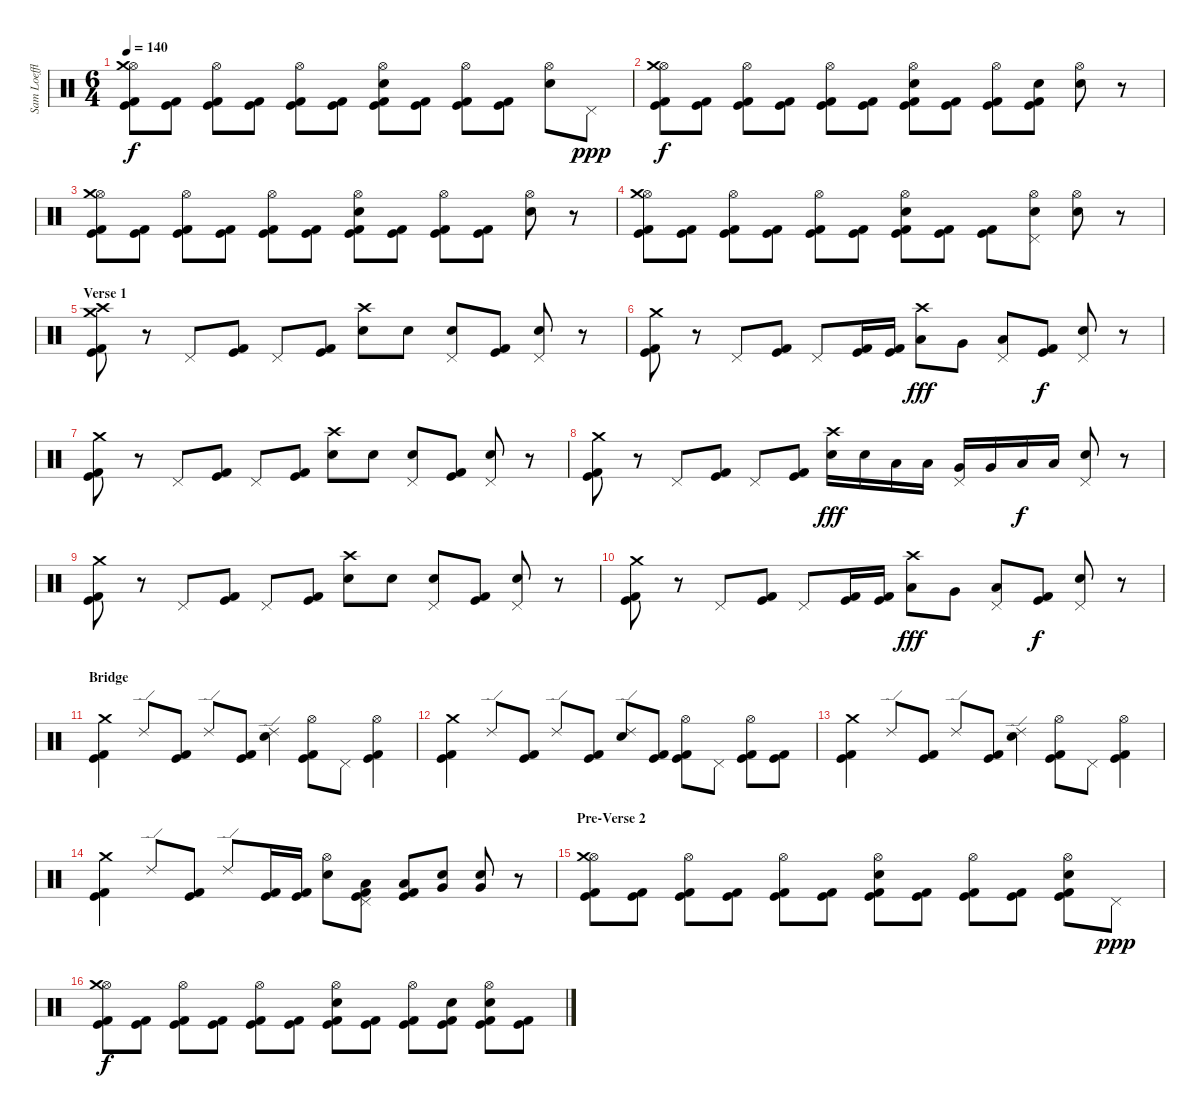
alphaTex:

\track ("Sam Loeffler - Drums" "Sam Loeffl") {instrument percussion}
\staff {score}
\articulation defaults
\ts (6 4)
\tempo 140
\clef neutral
\ks c
("Hi-Hat (open)" "Crash medium (hit)" "Kick (hit)" "Kick (hit) 2").8{dy f} ("Kick (hit)" "Kick (hit) 2").8 ("Hi-Hat (open)" "Kick (hit)" "Kick (hit) 2").8 ("Kick (hit)" "Kick (hit) 2").8 ("Hi-Hat (open)" "Kick (hit)" "Kick (hit) 2").8 ("Kick (hit)" "Kick (hit) 2").8 ("Hi-Hat (open)" "Electric Snare (hit)" "Kick (hit)" "Kick (hit) 2").8 ("Kick (hit)" "Kick (hit) 2").8 ("Hi-Hat (open)" "Kick (hit)" "Kick (hit) 2").8 ("Kick (hit)" "Kick (hit) 2").8 ("Hi-Hat (open)" "Electric Snare (hit)").8 "Pedal Hi-Hat (hit)".8{dy ppp} |
("Hi-Hat (open)" "Crash medium (hit)" "Kick (hit)" "Kick (hit) 2").8{dy f} ("Kick (hit)" "Kick (hit) 2").8 ("Hi-Hat (open)" "Kick (hit)" "Kick (hit) 2").8 ("Kick (hit)" "Kick (hit) 2").8 ("Hi-Hat (open)" "Kick (hit)" "Kick (hit) 2").8 ("Kick (hit)" "Kick (hit) 2").8 ("Hi-Hat (open)" "Electric Snare (hit)" "Kick (hit)" "Kick (hit) 2").8 ("Kick (hit)" "Kick (hit) 2").8 ("Hi-Hat (open)" "Kick (hit)" "Kick (hit) 2").8 ("Electric Snare (hit)" "Kick (hit)" "Kick (hit) 2").8 ("Hi-Hat (open)" "Electric Snare (hit)").8 r.8 |
("Hi-Hat (open)" "Crash medium (hit)" "Kick (hit)" "Kick (hit) 2").8 ("Kick (hit)" "Kick (hit) 2").8 ("Hi-Hat (open)" "Kick (hit)" "Kick (hit) 2").8 ("Kick (hit)" "Kick (hit) 2").8 ("Hi-Hat (open)" "Kick (hit)" "Kick (hit) 2").8 ("Kick (hit)" "Kick (hit) 2").8 ("Hi-Hat (open)" "Electric Snare (hit)" "Kick (hit)" "Kick (hit) 2").8 ("Kick (hit)" "Kick (hit) 2").8 ("Hi-Hat (open)" "Kick (hit)" "Kick (hit) 2").8 ("Kick (hit)" "Kick (hit) 2").8 ("Hi-Hat (open)" "Electric Snare (hit)").8 r.8 |
("Hi-Hat (open)" "Crash medium (hit)" "Kick (hit)" "Kick (hit) 2").8 ("Kick (hit)" "Kick (hit) 2").8 ("Hi-Hat (open)" "Kick (hit)" "Kick (hit) 2").8 ("Kick (hit)" "Kick (hit) 2").8 ("Hi-Hat (open)" "Kick (hit)" "Kick (hit) 2").8 ("Kick (hit)" "Kick (hit) 2").8 ("Hi-Hat (open)" "Electric Snare (hit)" "Kick (hit)" "Kick (hit) 2").8 ("Kick (hit)" "Kick (hit) 2").8 ("Kick (hit)" "Kick (hit) 2").8 ("Hi-Hat (open)" "Pedal Hi-Hat (hit)" "Electric Snare (hit)").8 ("Hi-Hat (open)" "Electric Snare (hit)").8 r.8 |
\section ("" "Verse 1")
("Crash high (hit)" "Crash medium (hit)" "Kick (hit)" "Kick (hit) 2").8 r.8 "Pedal Hi-Hat (hit)".8 ("Kick (hit)" "Kick (hit) 2").8 "Pedal Hi-Hat (hit)".8 ("Kick (hit)" "Kick (hit) 2").8 ("Crash high (hit)" "Electric Snare (hit)").8 "Electric Snare (hit)".8 ("Pedal Hi-Hat (hit)" "Electric Snare (hit)").8 ("Kick (hit)" "Kick (hit) 2").8 ("Pedal Hi-Hat (hit)" "Electric Snare (hit)").8 r.8 |
("Crash medium (hit)" "Kick (hit)" "Kick (hit) 2").8 r.8 "Pedal Hi-Hat (hit)".8 ("Kick (hit)" "Kick (hit) 2").8 "Pedal Hi-Hat (hit)".8 ("Kick (hit)" "Kick (hit) 2").16 ("Kick (hit)" "Kick (hit) 2").16 ("Crash high (hit)" "Low Tom (hit)").8{dy fff} "Very Low Tom (hit)".8 ("Pedal Hi-Hat (hit)" "Low Floor Tom (hit)").8 ("Kick (hit)" "Kick (hit) 2").8{dy f} ("Pedal Hi-Hat (hit)" "Electric Snare (hit)").8 r.8 |
("Crash medium (hit)" "Kick (hit)" "Kick (hit) 2").8 r.8 "Pedal Hi-Hat (hit)".8 ("Kick (hit)" "Kick (hit) 2").8 "Pedal Hi-Hat (hit)".8 ("Kick (hit)" "Kick (hit) 2").8 ("Crash high (hit)" "Electric Snare (hit)").8 "Electric Snare (hit)".8 ("Pedal Hi-Hat (hit)" "Electric Snare (hit)").8 ("Kick (hit)" "Kick (hit) 2").8 ("Pedal Hi-Hat (hit)" "Electric Snare (hit)").8 r.8 |
("Crash medium (hit)" "Kick (hit)" "Kick (hit) 2").8 r.8 "Pedal Hi-Hat (hit)".8 ("Kick (hit)" "Kick (hit) 2").8 "Pedal Hi-Hat (hit)".8 ("Kick (hit)" "Kick (hit) 2").8 ("Crash high (hit)" "Electric Snare (hit)").16{dy fff} "Electric Snare (hit)".16 "Low Tom (hit)".16 "Low Tom (hit)".16 ("Pedal Hi-Hat (hit)" "Very Low Tom (hit)").16 "Very Low Tom (hit)".16 "Low Floor Tom (hit)".16{dy f} "Low Floor Tom (hit)".16 ("Pedal Hi-Hat (hit)" "Electric Snare (hit)").8 r.8 |
("Crash medium (hit)" "Kick (hit)" "Kick (hit) 2").8 r.8 "Pedal Hi-Hat (hit)".8 ("Kick (hit)" "Kick (hit) 2").8 "Pedal Hi-Hat (hit)".8 ("Kick (hit)" "Kick (hit) 2").8 ("Crash high (hit)" "Electric Snare (hit)").8 "Electric Snare (hit)".8 ("Pedal Hi-Hat (hit)" "Electric Snare (hit)").8 ("Kick (hit)" "Kick (hit) 2").8 ("Pedal Hi-Hat (hit)" "Electric Snare (hit)").8 r.8 |
("Crash medium (hit)" "Kick (hit)" "Kick (hit) 2").8 r.8 "Pedal Hi-Hat (hit)".8 ("Kick (hit)" "Kick (hit) 2").8 "Pedal Hi-Hat (hit)".8 ("Kick (hit)" "Kick (hit) 2").16 ("Kick (hit)" "Kick (hit) 2").16 ("Crash high (hit)" "Low Tom (hit)").8{dy fff} "Very Low Tom (hit)".8 ("Pedal Hi-Hat (hit)" "Low Floor Tom (hit)").8 ("Kick (hit)" "Kick (hit) 2").8{dy f} ("Pedal Hi-Hat (hit)" "Electric Snare (hit)").8 r.8 |
\section ("" "Bridge")
("Crash medium (hit)" "Kick (hit)" "Kick (hit) 2").4 "Ride (edge) 2".8 ("Kick (hit) 2" "Kick (hit)").8 "Ride (edge) 2".8 ("Kick (hit)" "Kick (hit) 2").8 ("Ride (edge) 2" "Electric Snare (hit)").4 ("Hi-Hat (open)" "Kick (hit)" "Kick (hit) 2").8 "Pedal Hi-Hat (hit)".8 ("Hi-Hat (open)" "Kick (hit)" "Kick (hit) 2").4 |
("Crash medium (hit)" "Kick (hit)" "Kick (hit) 2").4 "Ride (edge) 2".8 ("Kick (hit) 2" "Kick (hit)").8 "Ride (edge) 2".8 ("Kick (hit)" "Kick (hit) 2").8 ("Ride (edge) 2" "Electric Snare (hit)").8 ("Kick (hit)" "Kick (hit) 2").8 ("Hi-Hat (open)" "Kick (hit)" "Kick (hit) 2").8 "Pedal Hi-Hat (hit)".8 ("Hi-Hat (open)" "Kick (hit)" "Kick (hit) 2").8 ("Kick (hit)" "Kick (hit) 2").8 |
("Crash medium (hit)" "Kick (hit)" "Kick (hit) 2").4 "Ride (edge) 2".8 ("Kick (hit) 2" "Kick (hit)").8 "Ride (edge) 2".8 ("Kick (hit)" "Kick (hit) 2").8 ("Ride (edge) 2" "Electric Snare (hit)").4 ("Hi-Hat (open)" "Kick (hit)" "Kick (hit) 2").8 "Pedal Hi-Hat (hit)".8 ("Hi-Hat (open)" "Kick (hit)" "Kick (hit) 2").4 |
("Crash medium (hit)" "Kick (hit)" "Kick (hit) 2").4 "Ride (edge) 2".8 ("Kick (hit) 2" "Kick (hit)").8 "Ride (edge) 2".8 ("Kick (hit)" "Kick (hit) 2").16 ("Kick (hit)" "Kick (hit) 2").16 ("Hi-Hat (open)" "Electric Snare (hit)").8 ("Pedal Hi-Hat (hit)" "Low Floor Tom (hit)" "Kick (hit)" "Kick (hit) 2").8 ("Low Floor Tom (hit)" "Kick (hit)" "Kick (hit) 2").8 ("Very Low Tom (hit)" "Electric Snare (hit)").8 ("Very Low Tom (hit)" "Electric Snare (hit)").8 r.8 |
\section ("" "Pre-Verse 2")
("Hi-Hat (open)" "Crash medium (hit)" "Kick (hit)" "Kick (hit) 2").8 ("Kick (hit)" "Kick (hit) 2").8 ("Hi-Hat (open)" "Kick (hit)" "Kick (hit) 2").8 ("Kick (hit)" "Kick (hit) 2").8 ("Hi-Hat (open)" "Kick (hit)" "Kick (hit) 2").8 ("Kick (hit)" "Kick (hit) 2").8 ("Hi-Hat (open)" "Electric Snare (hit)" "Kick (hit)" "Kick (hit) 2").8 ("Kick (hit)" "Kick (hit) 2").8 ("Hi-Hat (open)" "Kick (hit)" "Kick (hit) 2").8 ("Kick (hit)" "Kick (hit) 2").8 ("Hi-Hat (open)" "Electric Snare (hit)" "Kick (hit)" "Kick (hit) 2").8 "Pedal Hi-Hat (hit)".8{dy ppp} |
("Hi-Hat (open)" "Crash medium (hit)" "Kick (hit)" "Kick (hit) 2").8{dy f} ("Kick (hit)" "Kick (hit) 2").8 ("Hi-Hat (open)" "Kick (hit)" "Kick (hit) 2").8 ("Kick (hit)" "Kick (hit) 2").8 ("Hi-Hat (open)" "Kick (hit)" "Kick (hit) 2").8 ("Kick (hit)" "Kick (hit) 2").8 ("Hi-Hat (open)" "Electric Snare (hit)" "Kick (hit)" "Kick (hit) 2").8 ("Kick (hit)" "Kick (hit) 2").8 ("Hi-Hat (open)" "Kick (hit)" "Kick (hit) 2").8 ("Electric Snare (hit)" "Kick (hit)" "Kick (hit) 2").8 ("Hi-Hat (open)" "Electric Snare (hit)" "Kick (hit)" "Kick (hit) 2").8 ("Kick (hit)" "Kick (hit) 2").8
